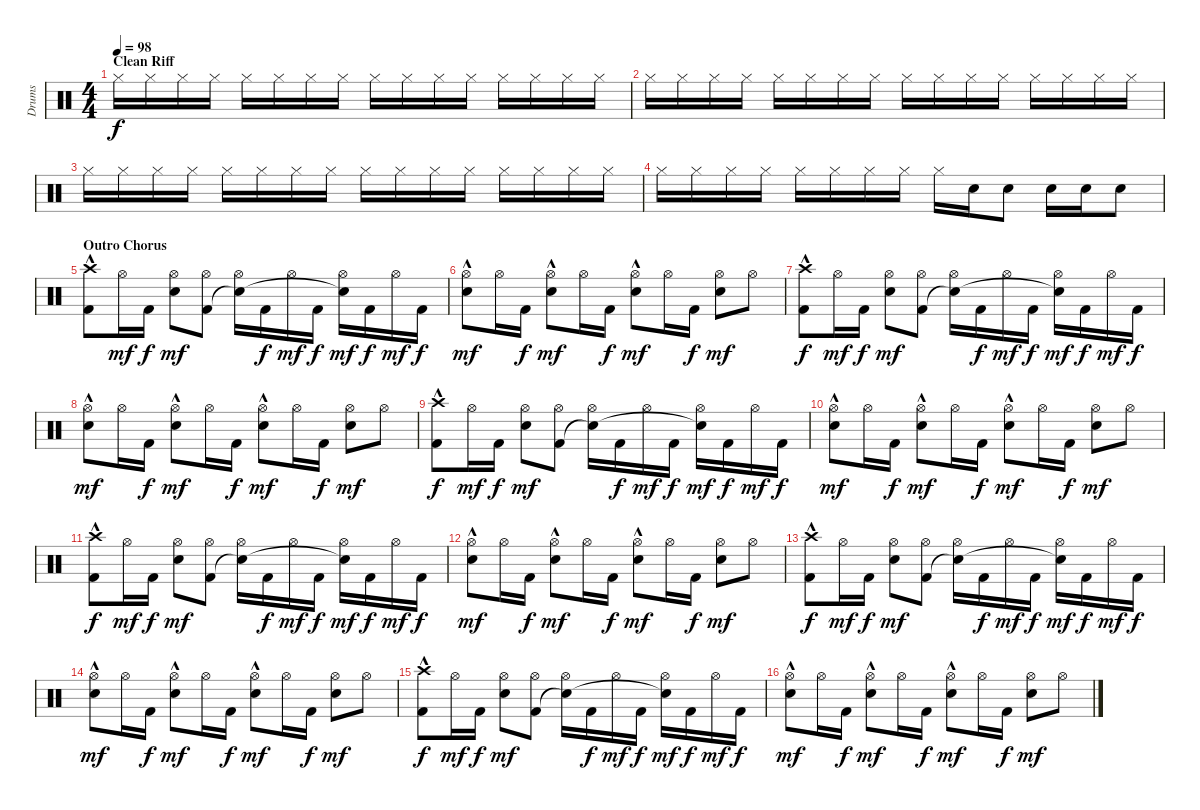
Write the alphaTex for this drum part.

\track ("Drums" "Drums") {instrument percussion}
\staff {score}
\articulation defaults
\ts (4 4)
\section ("" "Clean Riff")
\tempo 98
\clef neutral
\ks c "Hi-Hat (closed)".16{dy f} "Hi-Hat (closed)".16 "Hi-Hat (closed)".16 "Hi-Hat (closed)".16 "Hi-Hat (closed)".16 "Hi-Hat (closed)".16 "Hi-Hat (closed)".16 "Hi-Hat (closed)".16 "Hi-Hat (closed)".16 "Hi-Hat (closed)".16 "Hi-Hat (closed)".16 "Hi-Hat (closed)".16 "Hi-Hat (closed)".16 "Hi-Hat (closed)".16 "Hi-Hat (closed)".16 "Hi-Hat (closed)".16
|
"Hi-Hat (closed)".16 "Hi-Hat (closed)".16 "Hi-Hat (closed)".16 "Hi-Hat (closed)".16 "Hi-Hat (closed)".16 "Hi-Hat (closed)".16 "Hi-Hat (closed)".16 "Hi-Hat (closed)".16 "Hi-Hat (closed)".16 "Hi-Hat (closed)".16 "Hi-Hat (closed)".16 "Hi-Hat (closed)".16 "Hi-Hat (closed)".16 "Hi-Hat (closed)".16 "Hi-Hat (closed)".16 "Hi-Hat (closed)".16 |
"Hi-Hat (closed)".16 "Hi-Hat (closed)".16 "Hi-Hat (closed)".16 "Hi-Hat (closed)".16 "Hi-Hat (closed)".16 "Hi-Hat (closed)".16 "Hi-Hat (closed)".16 "Hi-Hat (closed)".16 "Hi-Hat (closed)".16 "Hi-Hat (closed)".16 "Hi-Hat (closed)".16 "Hi-Hat (closed)".16 "Hi-Hat (closed)".16 "Hi-Hat (closed)".16 "Hi-Hat (closed)".16 "Hi-Hat (closed)".16 |
"Hi-Hat (closed)".16 "Hi-Hat (closed)".16 "Hi-Hat (closed)".16 "Hi-Hat (closed)".16 "Hi-Hat (closed)".16 "Hi-Hat (closed)".16 "Hi-Hat (closed)".16 "Hi-Hat (closed)".16 "Hi-Hat (closed)".16 "Electric Snare (hit)".16 "Electric Snare (hit)".8 "Electric Snare (hit)".16 "Electric Snare (hit)".16 "Electric Snare (hit)".8 |
\section ("" "Outro Chorus")
("Crash high (hit)" "Kick (hit) 2"{hac}).8 "Hi-Hat (open)".16{dy mf} "Kick (hit) 2".16{dy f} ("Hi-Hat (open)" "Electric Snare (hit)").8{dy mf} ("Hi-Hat (open)" "Kick (hit) 2").8 ("Hi-Hat (open)" "Snare (hit)"{t}).16 "Kick (hit) 2".16{dy f} "Hi-Hat (open)".16{dy mf} "Kick (hit) 2".16{dy f} ("Hi-Hat (open)" "Snare (hit)"{t}).16{dy mf} "Kick (hit) 2".16{dy f} "Hi-Hat (open)".16{dy mf} "Kick (hit) 2".16{dy f} |
("Hi-Hat (open)" "Electric Snare (hit)"{hac}).8{dy mf} "Hi-Hat (open)".16 "Kick (hit) 2".16{dy f} ("Hi-Hat (open)" "Electric Snare (hit)"{hac}).8{dy mf} "Hi-Hat (open)".16 "Kick (hit) 2".16{dy f} ("Hi-Hat (open)" "Electric Snare (hit)"{hac}).8{dy mf} "Hi-Hat (open)".16 "Kick (hit) 2".16{dy f} ("Hi-Hat (open)" "Electric Snare (hit)").8{dy mf} "Hi-Hat (open)".8 |
("Crash high (hit)" "Kick (hit) 2"{hac}).8{dy f} "Hi-Hat (open)".16{dy mf} "Kick (hit) 2".16{dy f} ("Hi-Hat (open)" "Electric Snare (hit)").8{dy mf} ("Hi-Hat (open)" "Kick (hit) 2").8 ("Hi-Hat (open)" "Snare (hit)"{t}).16 "Kick (hit) 2".16{dy f} "Hi-Hat (open)".16{dy mf} "Kick (hit) 2".16{dy f} ("Hi-Hat (open)" "Snare (hit)"{t}).16{dy mf} "Kick (hit) 2".16{dy f} "Hi-Hat (open)".16{dy mf} "Kick (hit) 2".16{dy f} |
("Hi-Hat (open)" "Electric Snare (hit)"{hac}).8{dy mf} "Hi-Hat (open)".16 "Kick (hit) 2".16{dy f} ("Hi-Hat (open)" "Electric Snare (hit)"{hac}).8{dy mf} "Hi-Hat (open)".16 "Kick (hit) 2".16{dy f} ("Hi-Hat (open)" "Electric Snare (hit)"{hac}).8{dy mf} "Hi-Hat (open)".16 "Kick (hit) 2".16{dy f} ("Hi-Hat (open)" "Electric Snare (hit)").8{dy mf} "Hi-Hat (open)".8 |
("Crash high (hit)" "Kick (hit) 2"{hac}).8{dy f} "Hi-Hat (open)".16{dy mf} "Kick (hit) 2".16{dy f} ("Hi-Hat (open)" "Electric Snare (hit)").8{dy mf} ("Hi-Hat (open)" "Kick (hit) 2").8 ("Hi-Hat (open)" "Snare (hit)"{t}).16 "Kick (hit) 2".16{dy f} "Hi-Hat (open)".16{dy mf} "Kick (hit) 2".16{dy f} ("Hi-Hat (open)" "Snare (hit)"{t}).16{dy mf} "Kick (hit) 2".16{dy f} "Hi-Hat (open)".16{dy mf} "Kick (hit) 2".16{dy f} |
("Hi-Hat (open)" "Electric Snare (hit)"{hac}).8{dy mf} "Hi-Hat (open)".16 "Kick (hit) 2".16{dy f} ("Hi-Hat (open)" "Electric Snare (hit)"{hac}).8{dy mf} "Hi-Hat (open)".16 "Kick (hit) 2".16{dy f} ("Hi-Hat (open)" "Electric Snare (hit)"{hac}).8{dy mf} "Hi-Hat (open)".16 "Kick (hit) 2".16{dy f} ("Hi-Hat (open)" "Electric Snare (hit)").8{dy mf} "Hi-Hat (open)".8 |
("Crash high (hit)" "Kick (hit) 2"{hac}).8{dy f volume 8} "Hi-Hat (open)".16{dy mf} "Kick (hit) 2".16{dy f} ("Hi-Hat (open)" "Electric Snare (hit)").8{dy mf} ("Hi-Hat (open)" "Kick (hit) 2").8 ("Hi-Hat (open)" "Snare (hit)"{t}).16 "Kick (hit) 2".16{dy f} "Hi-Hat (open)".16{dy mf} "Kick (hit) 2".16{dy f} ("Hi-Hat (open)" "Snare (hit)"{t}).16{dy mf} "Kick (hit) 2".16{dy f} "Hi-Hat (open)".16{dy mf} "Kick (hit) 2".16{dy f} |
("Hi-Hat (open)" "Electric Snare (hit)"{hac}).8{dy mf} "Hi-Hat (open)".16 "Kick (hit) 2".16{dy f} ("Hi-Hat (open)" "Electric Snare (hit)"{hac}).8{dy mf} "Hi-Hat (open)".16 "Kick (hit) 2".16{dy f} ("Hi-Hat (open)" "Electric Snare (hit)"{hac}).8{dy mf} "Hi-Hat (open)".16 "Kick (hit) 2".16{dy f} ("Hi-Hat (open)" "Electric Snare (hit)").8{dy mf} "Hi-Hat (open)".8 |
("Crash high (hit)" "Kick (hit) 2"{hac}).8{dy f volume 4} "Hi-Hat (open)".16{dy mf} "Kick (hit) 2".16{dy f} ("Hi-Hat (open)" "Electric Snare (hit)").8{dy mf} ("Hi-Hat (open)" "Kick (hit) 2").8 ("Hi-Hat (open)" "Snare (hit)"{t}).16 "Kick (hit) 2".16{dy f} "Hi-Hat (open)".16{dy mf} "Kick (hit) 2".16{dy f} ("Hi-Hat (open)" "Snare (hit)"{t}).16{dy mf} "Kick (hit) 2".16{dy f} "Hi-Hat (open)".16{dy mf} "Kick (hit) 2".16{dy f} |
("Hi-Hat (open)" "Electric Snare (hit)"{hac}).8{dy mf} "Hi-Hat (open)".16 "Kick (hit) 2".16{dy f} ("Hi-Hat (open)" "Electric Snare (hit)"{hac}).8{dy mf} "Hi-Hat (open)".16 "Kick (hit) 2".16{dy f} ("Hi-Hat (open)" "Electric Snare (hit)"{hac}).8{dy mf} "Hi-Hat (open)".16 "Kick (hit) 2".16{dy f} ("Hi-Hat (open)" "Electric Snare (hit)").8{dy mf} "Hi-Hat (open)".8 |
("Crash high (hit)" "Kick (hit) 2"{hac}).8{dy f volume 0} "Hi-Hat (open)".16{dy mf} "Kick (hit) 2".16{dy f} ("Hi-Hat (open)" "Electric Snare (hit)").8{dy mf} ("Hi-Hat (open)" "Kick (hit) 2").8 ("Hi-Hat (open)" "Snare (hit)"{t}).16 "Kick (hit) 2".16{dy f} "Hi-Hat (open)".16{dy mf} "Kick (hit) 2".16{dy f} ("Hi-Hat (open)" "Snare (hit)"{t}).16{dy mf} "Kick (hit) 2".16{dy f} "Hi-Hat (open)".16{dy mf} "Kick (hit) 2".16{dy f} |
("Hi-Hat (open)" "Electric Snare (hit)"{hac}).8{dy mf} "Hi-Hat (open)".16 "Kick (hit) 2".16{dy f} ("Hi-Hat (open)" "Electric Snare (hit)"{hac}).8{dy mf} "Hi-Hat (open)".16 "Kick (hit) 2".16{dy f} ("Hi-Hat (open)" "Electric Snare (hit)"{hac}).8{dy mf} "Hi-Hat (open)".16 "Kick (hit) 2".16{dy f} ("Hi-Hat (open)" "Electric Snare (hit)").8{dy mf} "Hi-Hat (open)".8
